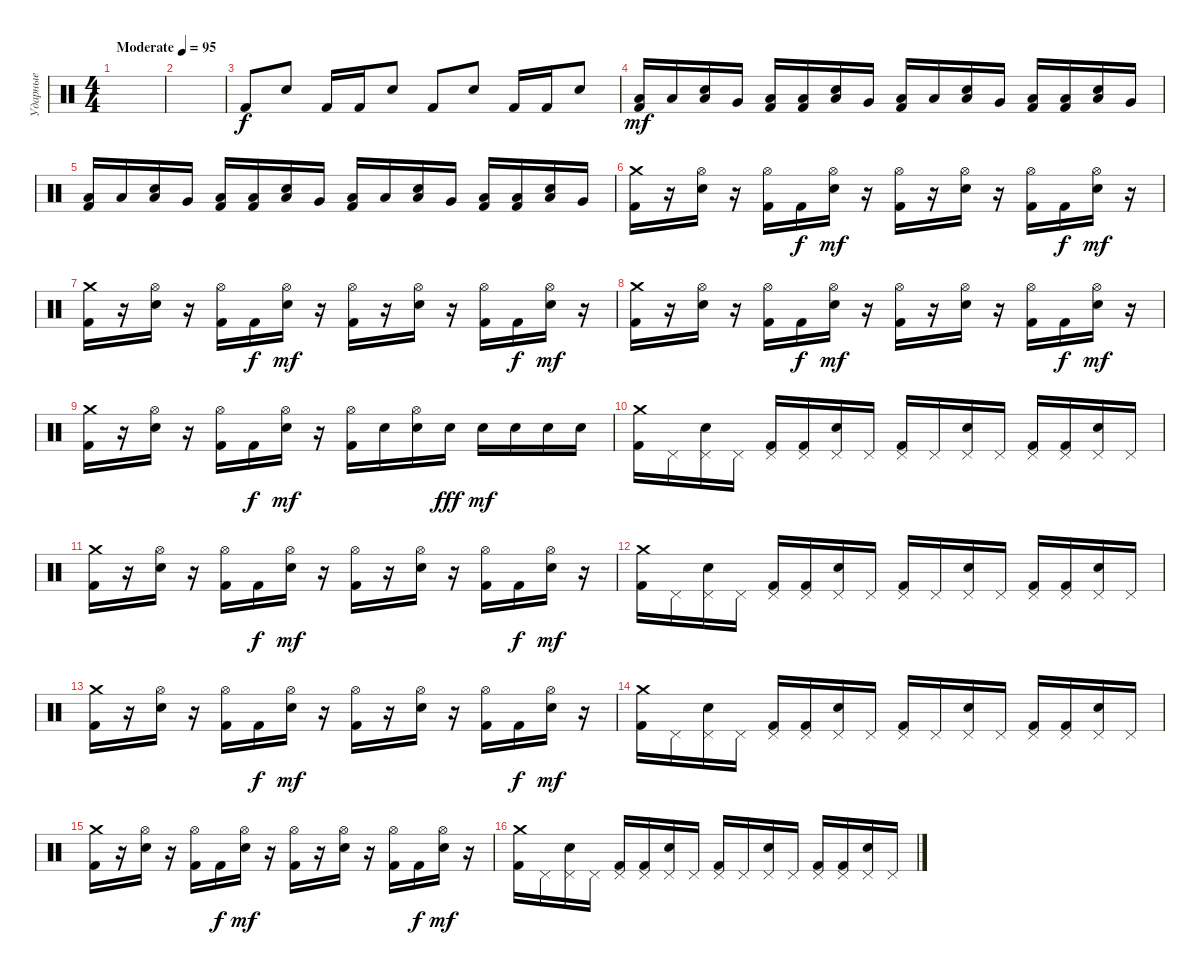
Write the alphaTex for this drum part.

\track ("Ударные" "Ударные") {instrument percussion}
\staff {score}
\articulation defaults
\ts (4 4)
\tempo (95 "Moderate")
\clef neutral
\ks c
|
|
"Kick (hit) 2".8 "Electric Snare (hit)".8 "Kick (hit) 2".16 "Kick (hit) 2".16 "Electric Snare (hit)".8 "Kick (hit) 2".8 "Electric Snare (hit)".8 "Kick (hit) 2".16 "Kick (hit) 2".16 "Electric Snare (hit)".8 |
("Low Floor Tom (hit)" "Kick (hit) 2").16{dy mf} "Low Floor Tom (hit)".16 ("Low Floor Tom (hit)" "Electric Snare (hit)").16 "Very Low Tom (hit)".16 ("Low Floor Tom (hit)" "Kick (hit) 2").16 ("Low Floor Tom (hit)" "Kick (hit) 2").16 ("Low Floor Tom (hit)" "Electric Snare (hit)").16 "Very Low Tom (hit)".16 ("Low Floor Tom (hit)" "Kick (hit) 2").16 "Low Floor Tom (hit)".16 ("Low Floor Tom (hit)" "Electric Snare (hit)").16 "Very Low Tom (hit)".16 ("Low Floor Tom (hit)" "Kick (hit) 2").16 ("Low Floor Tom (hit)" "Kick (hit) 2").16 ("Low Floor Tom (hit)" "Electric Snare (hit)").16 "Very Low Tom (hit)".16 |
("Low Floor Tom (hit)" "Kick (hit) 2").16 "Low Floor Tom (hit)".16 ("Low Floor Tom (hit)" "Electric Snare (hit)").16 "Very Low Tom (hit)".16 ("Low Floor Tom (hit)" "Kick (hit) 2").16 ("Low Floor Tom (hit)" "Kick (hit) 2").16 ("Low Floor Tom (hit)" "Electric Snare (hit)").16 "Very Low Tom (hit)".16 ("Low Floor Tom (hit)" "Kick (hit) 2").16 "Low Floor Tom (hit)".16 ("Low Floor Tom (hit)" "Electric Snare (hit)").16 "Very Low Tom (hit)".16 ("Low Floor Tom (hit)" "Kick (hit) 2").16 ("Low Floor Tom (hit)" "Kick (hit) 2").16 ("Low Floor Tom (hit)" "Electric Snare (hit)").16 "Very Low Tom (hit)".16 |
("Crash medium (hit)" "Kick (hit) 2").16 r.16 ("Hi-Hat (open)" "Electric Snare (hit)").16 r.16 ("Hi-Hat (open)" "Kick (hit) 2").16 "Kick (hit) 2".16{dy f} ("Hi-Hat (open)" "Electric Snare (hit)").16{dy mf} r.16 ("Hi-Hat (open)" "Kick (hit) 2").16 r.16 ("Hi-Hat (open)" "Electric Snare (hit)").16 r.16 ("Hi-Hat (open)" "Kick (hit) 2").16 "Kick (hit) 2".16{dy f} ("Hi-Hat (open)" "Electric Snare (hit)").16{dy mf} r.16 |
("Crash medium (hit)" "Kick (hit) 2").16 r.16 ("Hi-Hat (open)" "Electric Snare (hit)").16 r.16 ("Hi-Hat (open)" "Kick (hit) 2").16 "Kick (hit) 2".16{dy f} ("Hi-Hat (open)" "Electric Snare (hit)").16{dy mf} r.16 ("Hi-Hat (open)" "Kick (hit) 2").16 r.16 ("Hi-Hat (open)" "Electric Snare (hit)").16 r.16 ("Hi-Hat (open)" "Kick (hit) 2").16 "Kick (hit) 2".16{dy f} ("Hi-Hat (open)" "Electric Snare (hit)").16{dy mf} r.16 |
("Crash medium (hit)" "Kick (hit) 2").16 r.16 ("Hi-Hat (open)" "Electric Snare (hit)").16 r.16 ("Hi-Hat (open)" "Kick (hit) 2").16 "Kick (hit) 2".16{dy f} ("Hi-Hat (open)" "Electric Snare (hit)").16{dy mf} r.16 ("Hi-Hat (open)" "Kick (hit) 2").16 r.16 ("Hi-Hat (open)" "Electric Snare (hit)").16 r.16 ("Hi-Hat (open)" "Kick (hit) 2").16 "Kick (hit) 2".16{dy f} ("Hi-Hat (open)" "Electric Snare (hit)").16{dy mf} r.16 |
("Crash medium (hit)" "Kick (hit) 2").16 r.16 ("Hi-Hat (open)" "Electric Snare (hit)").16 r.16 ("Hi-Hat (open)" "Kick (hit) 2").16 "Kick (hit) 2".16{dy f} ("Hi-Hat (open)" "Electric Snare (hit)").16{dy mf} r.16 ("Hi-Hat (open)" "Kick (hit) 2").16 "Electric Snare (hit)".16 ("Hi-Hat (open)" "Electric Snare (hit)").16 "Electric Snare (hit)".16{dy fff} "Electric Snare (hit)".16{dy mf} "Electric Snare (hit)".16 "Electric Snare (hit)".16 "Electric Snare (hit)".16 |
("Crash medium (hit)" "Kick (hit) 2").16 "Pedal Hi-Hat (hit)".16 ("Pedal Hi-Hat (hit)" "Electric Snare (hit)").16 "Pedal Hi-Hat (hit)".16 ("Pedal Hi-Hat (hit)" "Kick (hit) 2").16 ("Pedal Hi-Hat (hit)" "Kick (hit) 2").16 ("Pedal Hi-Hat (hit)" "Electric Snare (hit)").16 "Pedal Hi-Hat (hit)".16 ("Pedal Hi-Hat (hit)" "Kick (hit) 2").16 "Pedal Hi-Hat (hit)".16 ("Pedal Hi-Hat (hit)" "Electric Snare (hit)").16 "Pedal Hi-Hat (hit)".16 ("Pedal Hi-Hat (hit)" "Kick (hit) 2").16 ("Pedal Hi-Hat (hit)" "Kick (hit) 2").16 ("Pedal Hi-Hat (hit)" "Electric Snare (hit)").16 "Pedal Hi-Hat (hit)".16 |
("Crash medium (hit)" "Kick (hit) 2").16 r.16 ("Hi-Hat (open)" "Electric Snare (hit)").16 r.16 ("Hi-Hat (open)" "Kick (hit) 2").16 "Kick (hit) 2".16{dy f} ("Hi-Hat (open)" "Electric Snare (hit)").16{dy mf} r.16 ("Hi-Hat (open)" "Kick (hit) 2").16 r.16 ("Hi-Hat (open)" "Electric Snare (hit)").16 r.16 ("Hi-Hat (open)" "Kick (hit) 2").16 "Kick (hit) 2".16{dy f} ("Hi-Hat (open)" "Electric Snare (hit)").16{dy mf} r.16 |
("Crash medium (hit)" "Kick (hit) 2").16 "Pedal Hi-Hat (hit)".16 ("Pedal Hi-Hat (hit)" "Electric Snare (hit)").16 "Pedal Hi-Hat (hit)".16 ("Pedal Hi-Hat (hit)" "Kick (hit) 2").16 ("Pedal Hi-Hat (hit)" "Kick (hit) 2").16 ("Pedal Hi-Hat (hit)" "Electric Snare (hit)").16 "Pedal Hi-Hat (hit)".16 ("Pedal Hi-Hat (hit)" "Kick (hit) 2").16 "Pedal Hi-Hat (hit)".16 ("Pedal Hi-Hat (hit)" "Electric Snare (hit)").16 "Pedal Hi-Hat (hit)".16 ("Pedal Hi-Hat (hit)" "Kick (hit) 2").16 ("Pedal Hi-Hat (hit)" "Kick (hit) 2").16 ("Pedal Hi-Hat (hit)" "Electric Snare (hit)").16 "Pedal Hi-Hat (hit)".16 |
("Crash medium (hit)" "Kick (hit) 2").16 r.16 ("Hi-Hat (open)" "Electric Snare (hit)").16 r.16 ("Hi-Hat (open)" "Kick (hit) 2").16 "Kick (hit) 2".16{dy f} ("Hi-Hat (open)" "Electric Snare (hit)").16{dy mf} r.16 ("Hi-Hat (open)" "Kick (hit) 2").16 r.16 ("Hi-Hat (open)" "Electric Snare (hit)").16 r.16 ("Hi-Hat (open)" "Kick (hit) 2").16 "Kick (hit) 2".16{dy f} ("Hi-Hat (open)" "Electric Snare (hit)").16{dy mf} r.16 |
("Crash medium (hit)" "Kick (hit) 2").16 "Pedal Hi-Hat (hit)".16 ("Pedal Hi-Hat (hit)" "Electric Snare (hit)").16 "Pedal Hi-Hat (hit)".16 ("Pedal Hi-Hat (hit)" "Kick (hit) 2").16 ("Pedal Hi-Hat (hit)" "Kick (hit) 2").16 ("Pedal Hi-Hat (hit)" "Electric Snare (hit)").16 "Pedal Hi-Hat (hit)".16 ("Pedal Hi-Hat (hit)" "Kick (hit) 2").16 "Pedal Hi-Hat (hit)".16 ("Pedal Hi-Hat (hit)" "Electric Snare (hit)").16 "Pedal Hi-Hat (hit)".16 ("Pedal Hi-Hat (hit)" "Kick (hit) 2").16 ("Pedal Hi-Hat (hit)" "Kick (hit) 2").16 ("Pedal Hi-Hat (hit)" "Electric Snare (hit)").16 "Pedal Hi-Hat (hit)".16 |
("Crash medium (hit)" "Kick (hit) 2").16 r.16 ("Hi-Hat (open)" "Electric Snare (hit)").16 r.16 ("Hi-Hat (open)" "Kick (hit) 2").16 "Kick (hit) 2".16{dy f} ("Hi-Hat (open)" "Electric Snare (hit)").16{dy mf} r.16 ("Hi-Hat (open)" "Kick (hit) 2").16 r.16 ("Hi-Hat (open)" "Electric Snare (hit)").16 r.16 ("Hi-Hat (open)" "Kick (hit) 2").16 "Kick (hit) 2".16{dy f} ("Hi-Hat (open)" "Electric Snare (hit)").16{dy mf} r.16 |
("Crash medium (hit)" "Kick (hit) 2").16 "Pedal Hi-Hat (hit)".16 ("Pedal Hi-Hat (hit)" "Electric Snare (hit)").16 "Pedal Hi-Hat (hit)".16 ("Pedal Hi-Hat (hit)" "Kick (hit) 2").16 ("Pedal Hi-Hat (hit)" "Kick (hit) 2").16 ("Pedal Hi-Hat (hit)" "Electric Snare (hit)").16 "Pedal Hi-Hat (hit)".16 ("Pedal Hi-Hat (hit)" "Kick (hit) 2").16 "Pedal Hi-Hat (hit)".16 ("Pedal Hi-Hat (hit)" "Electric Snare (hit)").16 "Pedal Hi-Hat (hit)".16 ("Pedal Hi-Hat (hit)" "Kick (hit) 2").16 ("Pedal Hi-Hat (hit)" "Kick (hit) 2").16 ("Pedal Hi-Hat (hit)" "Electric Snare (hit)").16 "Pedal Hi-Hat (hit)".16
